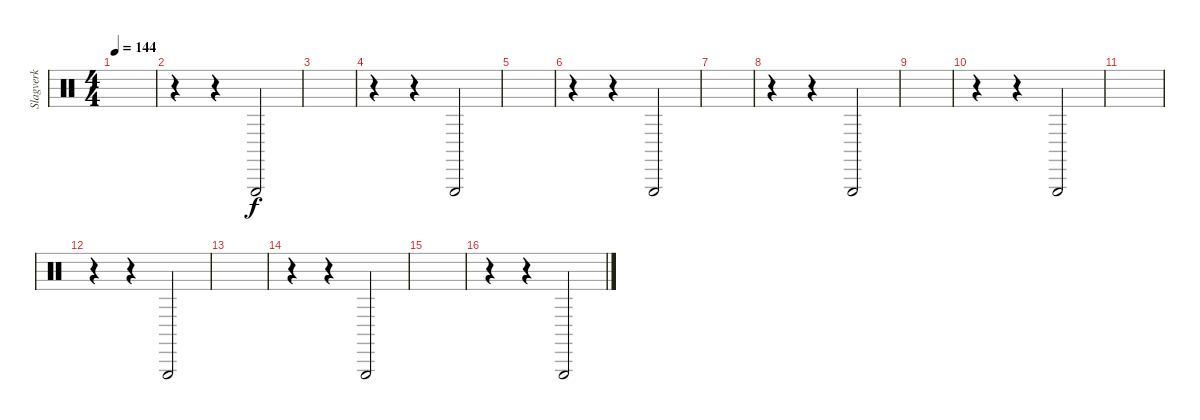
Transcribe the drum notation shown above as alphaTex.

\track ("Slagverk" "Slagverk") {instrument percussion}
\staff {score}
\articulation defaults
\ts (4 4)
\tempo 144
\clef neutral
\ks c
|
r.4 r.4 "Triangle (hit)".2 |
|
r.4 r.4 "Triangle (hit)".2 |
|
r.4 r.4 "Triangle (hit)".2 |
|
r.4 r.4 "Triangle (hit)".2 |
|
r.4 r.4 "Triangle (hit)".2 |
|
r.4 r.4 "Triangle (hit)".2 |
|
r.4 r.4 "Triangle (hit)".2 |
|
r.4 r.4 "Triangle (hit)".2
